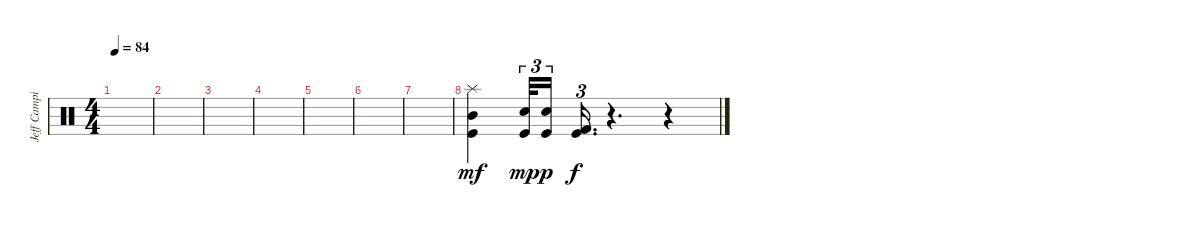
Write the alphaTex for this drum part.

\track ("Jeff Campitelli" "Jeff Campi") {instrument percussion}
\staff {score}
\articulation defaults
\ts (4 4)
\tempo 84
\clef neutral
\ks c
|
|
|
|
|
|
|
("Splash (hit)" "Mid Tom (hit)" "Kick (hit)").4{dy mf} ("Snare (hit) 2" "Kick (hit)").32{tu (3 2) dy mp} ("Electric Snare (hit)" "Kick (hit)").16{tu (3 2) dy p} ("Kick (hit) 2" "Kick (hit)").16{d tu (3 2) dy f} r.4{d} r.4
